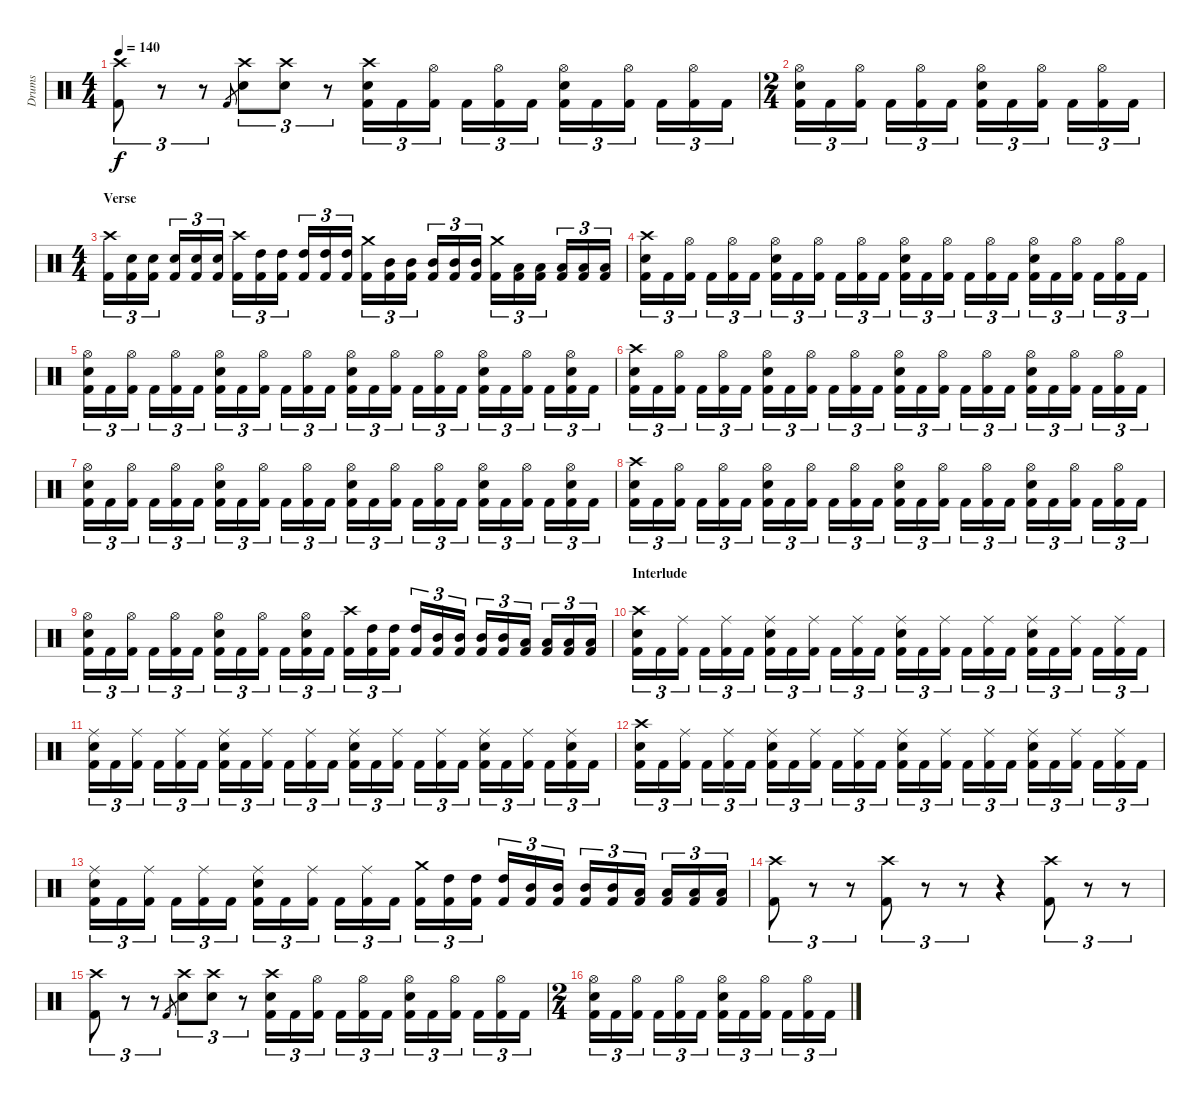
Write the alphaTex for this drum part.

\track ("Drums" "Drums") {instrument percussion}
\staff {score}
\articulation defaults
\ts (4 4)
\tempo 140
\clef neutral
\ks c
("Kick (hit) 2" "Crash high (hit)").8{tu (3 2) dy f} r.8{tu (3 2)} r.8{tu (3 2)} "Kick (hit) 2".8{gr} ("Snare (hit) 2" "Crash high (hit)").8{tu (3 2)} ("Snare (hit) 2" "Crash high (hit)").8{tu (3 2)} r.8{tu (3 2)} ("Kick (hit) 2" "Snare (hit) 2" "Crash high (hit)").16{tu (3 2)} "Kick (hit) 2".16{tu (3 2)} ("Kick (hit) 2" "Hi-Hat (open)").16{tu (3 2)} "Kick (hit) 2".16{tu (3 2)} ("Kick (hit) 2" "Hi-Hat (open)").16{tu (3 2)} "Kick (hit) 2".16{tu (3 2)} ("Kick (hit) 2" "Snare (hit) 2" "Hi-Hat (open)").16{tu (3 2)} "Kick (hit) 2".16{tu (3 2)} ("Kick (hit) 2" "Hi-Hat (open)").16{tu (3 2)} "Kick (hit) 2".16{tu (3 2)} ("Kick (hit) 2" "Hi-Hat (open)").16{tu (3 2)} "Kick (hit) 2".16{tu (3 2)} |
\ts (2 4)
("Kick (hit) 2" "Snare (hit) 2" "Hi-Hat (open)").16{tu (3 2)} "Kick (hit) 2".16{tu (3 2)} ("Kick (hit) 2" "Hi-Hat (open)").16{tu (3 2)} "Kick (hit) 2".16{tu (3 2)} ("Kick (hit) 2" "Hi-Hat (open)").16{tu (3 2)} "Kick (hit) 2".16{tu (3 2)} ("Kick (hit) 2" "Snare (hit) 2" "Hi-Hat (open)").16{tu (3 2)} "Kick (hit) 2".16{tu (3 2)} ("Kick (hit) 2" "Hi-Hat (open)").16{tu (3 2)} "Kick (hit) 2".16{tu (3 2)} ("Kick (hit) 2" "Hi-Hat (open)").16{tu (3 2)} "Kick (hit) 2".16{tu (3 2)} |
\ts (4 4)
\section ("" "Verse")
("Kick (hit) 2" "Crash high (hit)").16{tu (3 2)} ("Kick (hit) 2" "Snare (hit) 2").16{tu (3 2)} ("Kick (hit) 2" "Snare (hit) 2").16{tu (3 2)} ("Kick (hit) 2" "Snare (hit) 2").16{tu (3 2)} ("Kick (hit) 2" "Snare (hit) 2").16{tu (3 2)} ("Kick (hit) 2" "Snare (hit) 2").16{tu (3 2)} ("Kick (hit) 2" "Crash high (hit)").16{tu (3 2)} ("Kick (hit) 2" "High Tom (hit)").16{tu (3 2)} ("Kick (hit) 2" "High Tom (hit)").16{tu (3 2)} ("Kick (hit) 2" "High Tom (hit)").16{tu (3 2)} ("Kick (hit) 2" "High Tom (hit)").16{tu (3 2)} ("Kick (hit) 2" "High Tom (hit)").16{tu (3 2)} ("Kick (hit) 2" "Crash medium (hit)").16{tu (3 2)} ("Kick (hit) 2" "Mid Tom (hit)").16{tu (3 2)} ("Kick (hit) 2" "Mid Tom (hit)").16{tu (3 2)} ("Kick (hit) 2" "Mid Tom (hit)").16{tu (3 2)} ("Kick (hit) 2" "Mid Tom (hit)").16{tu (3 2)} ("Kick (hit) 2" "Mid Tom (hit)").16{tu (3 2)} ("Kick (hit) 2" "Crash medium (hit)").16{tu (3 2)} ("Kick (hit) 2" "Low Tom (hit)").16{tu (3 2)} ("Kick (hit) 2" "Low Tom (hit)").16{tu (3 2)} ("Kick (hit) 2" "Low Tom (hit)").16{tu (3 2)} ("Kick (hit) 2" "Low Tom (hit)").16{tu (3 2)} ("Kick (hit) 2" "Low Tom (hit)").16{tu (3 2)} |
("Kick (hit) 2" "Snare (hit) 2" "Crash high (hit)").16{tu (3 2)} "Kick (hit) 2".16{tu (3 2)} ("Kick (hit) 2" "Hi-Hat (open)").16{tu (3 2)} "Kick (hit) 2".16{tu (3 2)} ("Kick (hit) 2" "Hi-Hat (open)").16{tu (3 2)} "Kick (hit) 2".16{tu (3 2)} ("Kick (hit) 2" "Snare (hit) 2" "Hi-Hat (open)").16{tu (3 2)} "Kick (hit) 2".16{tu (3 2)} ("Kick (hit) 2" "Hi-Hat (open)").16{tu (3 2)} "Kick (hit) 2".16{tu (3 2)} ("Kick (hit) 2" "Hi-Hat (open)").16{tu (3 2)} "Kick (hit) 2".16{tu (3 2)} ("Kick (hit) 2" "Snare (hit) 2" "Hi-Hat (open)").16{tu (3 2)} "Kick (hit) 2".16{tu (3 2)} ("Kick (hit) 2" "Hi-Hat (open)").16{tu (3 2)} "Kick (hit) 2".16{tu (3 2)} ("Kick (hit) 2" "Hi-Hat (open)").16{tu (3 2)} "Kick (hit) 2".16{tu (3 2)} ("Kick (hit) 2" "Snare (hit) 2" "Hi-Hat (open)").16{tu (3 2)} "Kick (hit) 2".16{tu (3 2)} ("Kick (hit) 2" "Hi-Hat (open)").16{tu (3 2)} "Kick (hit) 2".16{tu (3 2)} ("Kick (hit) 2" "Hi-Hat (open)").16{tu (3 2)} "Kick (hit) 2".16{tu (3 2)} |
("Kick (hit) 2" "Snare (hit) 2" "Hi-Hat (open)").16{tu (3 2)} "Kick (hit) 2".16{tu (3 2)} ("Kick (hit) 2" "Hi-Hat (open)").16{tu (3 2)} "Kick (hit) 2".16{tu (3 2)} ("Kick (hit) 2" "Hi-Hat (open)").16{tu (3 2)} "Kick (hit) 2".16{tu (3 2)} ("Kick (hit) 2" "Snare (hit) 2" "Hi-Hat (open)").16{tu (3 2)} "Kick (hit) 2".16{tu (3 2)} ("Kick (hit) 2" "Hi-Hat (open)").16{tu (3 2)} "Kick (hit) 2".16{tu (3 2)} ("Kick (hit) 2" "Hi-Hat (open)").16{tu (3 2)} "Kick (hit) 2".16{tu (3 2)} ("Kick (hit) 2" "Snare (hit) 2" "Hi-Hat (open)").16{tu (3 2)} "Kick (hit) 2".16{tu (3 2)} ("Kick (hit) 2" "Hi-Hat (open)").16{tu (3 2)} "Kick (hit) 2".16{tu (3 2)} ("Kick (hit) 2" "Hi-Hat (open)").16{tu (3 2)} "Kick (hit) 2".16{tu (3 2)} ("Kick (hit) 2" "Snare (hit) 2" "Hi-Hat (open)").16{tu (3 2)} "Kick (hit) 2".16{tu (3 2)} ("Kick (hit) 2" "Hi-Hat (open)").16{tu (3 2)} "Kick (hit) 2".16{tu (3 2)} ("Kick (hit) 2" "Snare (hit) 2" "Hi-Hat (open)").16{tu (3 2)} "Kick (hit) 2".16{tu (3 2)} |
("Kick (hit) 2" "Snare (hit) 2" "Crash high (hit)").16{tu (3 2)} "Kick (hit) 2".16{tu (3 2)} ("Kick (hit) 2" "Hi-Hat (open)").16{tu (3 2)} "Kick (hit) 2".16{tu (3 2)} ("Kick (hit) 2" "Hi-Hat (open)").16{tu (3 2)} "Kick (hit) 2".16{tu (3 2)} ("Kick (hit) 2" "Snare (hit) 2" "Hi-Hat (open)").16{tu (3 2)} "Kick (hit) 2".16{tu (3 2)} ("Kick (hit) 2" "Hi-Hat (open)").16{tu (3 2)} "Kick (hit) 2".16{tu (3 2)} ("Kick (hit) 2" "Hi-Hat (open)").16{tu (3 2)} "Kick (hit) 2".16{tu (3 2)} ("Kick (hit) 2" "Snare (hit) 2" "Hi-Hat (open)").16{tu (3 2)} "Kick (hit) 2".16{tu (3 2)} ("Kick (hit) 2" "Hi-Hat (open)").16{tu (3 2)} "Kick (hit) 2".16{tu (3 2)} ("Kick (hit) 2" "Hi-Hat (open)").16{tu (3 2)} "Kick (hit) 2".16{tu (3 2)} ("Kick (hit) 2" "Snare (hit) 2" "Hi-Hat (open)").16{tu (3 2)} "Kick (hit) 2".16{tu (3 2)} ("Kick (hit) 2" "Hi-Hat (open)").16{tu (3 2)} "Kick (hit) 2".16{tu (3 2)} ("Kick (hit) 2" "Hi-Hat (open)").16{tu (3 2)} "Kick (hit) 2".16{tu (3 2)} |
("Kick (hit) 2" "Snare (hit) 2" "Hi-Hat (open)").16{tu (3 2)} "Kick (hit) 2".16{tu (3 2)} ("Kick (hit) 2" "Hi-Hat (open)").16{tu (3 2)} "Kick (hit) 2".16{tu (3 2)} ("Kick (hit) 2" "Hi-Hat (open)").16{tu (3 2)} "Kick (hit) 2".16{tu (3 2)} ("Kick (hit) 2" "Snare (hit) 2" "Hi-Hat (open)").16{tu (3 2)} "Kick (hit) 2".16{tu (3 2)} ("Kick (hit) 2" "Hi-Hat (open)").16{tu (3 2)} "Kick (hit) 2".16{tu (3 2)} ("Kick (hit) 2" "Hi-Hat (open)").16{tu (3 2)} "Kick (hit) 2".16{tu (3 2)} ("Kick (hit) 2" "Snare (hit) 2" "Hi-Hat (open)").16{tu (3 2)} "Kick (hit) 2".16{tu (3 2)} ("Kick (hit) 2" "Hi-Hat (open)").16{tu (3 2)} "Kick (hit) 2".16{tu (3 2)} ("Kick (hit) 2" "Hi-Hat (open)").16{tu (3 2)} "Kick (hit) 2".16{tu (3 2)} ("Kick (hit) 2" "Snare (hit) 2" "Hi-Hat (open)").16{tu (3 2)} "Kick (hit) 2".16{tu (3 2)} ("Kick (hit) 2" "Hi-Hat (open)").16{tu (3 2)} "Kick (hit) 2".16{tu (3 2)} ("Kick (hit) 2" "Snare (hit) 2" "Hi-Hat (open)").16{tu (3 2)} "Kick (hit) 2".16{tu (3 2)} |
("Kick (hit) 2" "Snare (hit) 2" "Crash high (hit)").16{tu (3 2)} "Kick (hit) 2".16{tu (3 2)} ("Kick (hit) 2" "Hi-Hat (open)").16{tu (3 2)} "Kick (hit) 2".16{tu (3 2)} ("Kick (hit) 2" "Hi-Hat (open)").16{tu (3 2)} "Kick (hit) 2".16{tu (3 2)} ("Kick (hit) 2" "Snare (hit) 2" "Hi-Hat (open)").16{tu (3 2)} "Kick (hit) 2".16{tu (3 2)} ("Kick (hit) 2" "Hi-Hat (open)").16{tu (3 2)} "Kick (hit) 2".16{tu (3 2)} ("Kick (hit) 2" "Hi-Hat (open)").16{tu (3 2)} "Kick (hit) 2".16{tu (3 2)} ("Kick (hit) 2" "Snare (hit) 2" "Hi-Hat (open)").16{tu (3 2)} "Kick (hit) 2".16{tu (3 2)} ("Kick (hit) 2" "Hi-Hat (open)").16{tu (3 2)} "Kick (hit) 2".16{tu (3 2)} ("Kick (hit) 2" "Hi-Hat (open)").16{tu (3 2)} "Kick (hit) 2".16{tu (3 2)} ("Kick (hit) 2" "Snare (hit) 2" "Hi-Hat (open)").16{tu (3 2)} "Kick (hit) 2".16{tu (3 2)} ("Kick (hit) 2" "Hi-Hat (open)").16{tu (3 2)} "Kick (hit) 2".16{tu (3 2)} ("Kick (hit) 2" "Hi-Hat (open)").16{tu (3 2)} "Kick (hit) 2".16{tu (3 2)} |
("Kick (hit) 2" "Snare (hit) 2" "Hi-Hat (open)").16{tu (3 2)} "Kick (hit) 2".16{tu (3 2)} ("Kick (hit) 2" "Hi-Hat (open)").16{tu (3 2)} "Kick (hit) 2".16{tu (3 2)} ("Kick (hit) 2" "Hi-Hat (open)").16{tu (3 2)} "Kick (hit) 2".16{tu (3 2)} ("Kick (hit) 2" "Snare (hit) 2" "Hi-Hat (open)").16{tu (3 2)} "Kick (hit) 2".16{tu (3 2)} ("Kick (hit) 2" "Hi-Hat (open)").16{tu (3 2)} "Kick (hit) 2".16{tu (3 2)} ("Kick (hit) 2" "Snare (hit) 2" "Hi-Hat (open)").16{tu (3 2)} "Kick (hit) 2".16{tu (3 2)} ("Kick (hit) 2" "Crash high (hit)").16{tu (3 2)} ("Kick (hit) 2" "High Tom (hit)").16{tu (3 2)} ("Kick (hit) 2" "High Tom (hit)").16{tu (3 2)} ("Kick (hit) 2" "High Tom (hit)").16{tu (3 2)} ("Kick (hit) 2" "Mid Tom (hit)").16{tu (3 2)} ("Kick (hit) 2" "Mid Tom (hit)").16{tu (3 2)} ("Kick (hit) 2" "Mid Tom (hit)").16{tu (3 2)} ("Kick (hit) 2" "Mid Tom (hit)").16{tu (3 2)} ("Kick (hit) 2" "Low Tom (hit)").16{tu (3 2)} ("Kick (hit) 2" "Low Tom (hit)").16{tu (3 2)} ("Kick (hit) 2" "Low Tom (hit)").16{tu (3 2)} ("Kick (hit) 2" "Low Tom (hit)").16{tu (3 2)} |
\section ("" "Interlude")
("Kick (hit) 2" "Snare (hit) 2" "Crash high (hit)").16{tu (3 2)} "Kick (hit) 2".16{tu (3 2)} ("Kick (hit) 2" "Ride (middle)").16{tu (3 2)} "Kick (hit) 2".16{tu (3 2)} ("Kick (hit) 2" "Ride (middle)").16{tu (3 2)} "Kick (hit) 2".16{tu (3 2)} ("Kick (hit) 2" "Snare (hit) 2" "Ride (middle)").16{tu (3 2)} "Kick (hit) 2".16{tu (3 2)} ("Kick (hit) 2" "Ride (middle)").16{tu (3 2)} "Kick (hit) 2".16{tu (3 2)} ("Kick (hit) 2" "Ride (middle)").16{tu (3 2)} "Kick (hit) 2".16{tu (3 2)} ("Kick (hit) 2" "Snare (hit) 2" "Ride (middle)").16{tu (3 2)} "Kick (hit) 2".16{tu (3 2)} ("Kick (hit) 2" "Ride (middle)").16{tu (3 2)} "Kick (hit) 2".16{tu (3 2)} ("Kick (hit) 2" "Ride (middle)").16{tu (3 2)} "Kick (hit) 2".16{tu (3 2)} ("Kick (hit) 2" "Snare (hit) 2" "Ride (middle)").16{tu (3 2)} "Kick (hit) 2".16{tu (3 2)} ("Kick (hit) 2" "Ride (middle)").16{tu (3 2)} "Kick (hit) 2".16{tu (3 2)} ("Kick (hit) 2" "Ride (middle)").16{tu (3 2)} "Kick (hit) 2".16{tu (3 2)} |
("Kick (hit) 2" "Snare (hit) 2" "Ride (middle)").16{tu (3 2)} "Kick (hit) 2".16{tu (3 2)} ("Kick (hit) 2" "Ride (middle)").16{tu (3 2)} "Kick (hit) 2".16{tu (3 2)} ("Kick (hit) 2" "Ride (middle)").16{tu (3 2)} "Kick (hit) 2".16{tu (3 2)} ("Kick (hit) 2" "Snare (hit) 2" "Ride (middle)").16{tu (3 2)} "Kick (hit) 2".16{tu (3 2)} ("Kick (hit) 2" "Ride (middle)").16{tu (3 2)} "Kick (hit) 2".16{tu (3 2)} ("Kick (hit) 2" "Ride (middle)").16{tu (3 2)} "Kick (hit) 2".16{tu (3 2)} ("Kick (hit) 2" "Snare (hit) 2" "Ride (middle)").16{tu (3 2)} "Kick (hit) 2".16{tu (3 2)} ("Kick (hit) 2" "Ride (middle)").16{tu (3 2)} "Kick (hit) 2".16{tu (3 2)} ("Kick (hit) 2" "Ride (middle)").16{tu (3 2)} "Kick (hit) 2".16{tu (3 2)} ("Kick (hit) 2" "Snare (hit) 2" "Ride (middle)").16{tu (3 2)} "Kick (hit) 2".16{tu (3 2)} ("Kick (hit) 2" "Ride (middle)").16{tu (3 2)} "Kick (hit) 2".16{tu (3 2)} ("Kick (hit) 2" "Snare (hit) 2" "Ride (middle)").16{tu (3 2)} "Kick (hit) 2".16{tu (3 2)} |
("Kick (hit) 2" "Snare (hit) 2" "Crash high (hit)").16{tu (3 2)} "Kick (hit) 2".16{tu (3 2)} ("Kick (hit) 2" "Ride (middle)").16{tu (3 2)} "Kick (hit) 2".16{tu (3 2)} ("Kick (hit) 2" "Ride (middle)").16{tu (3 2)} "Kick (hit) 2".16{tu (3 2)} ("Kick (hit) 2" "Snare (hit) 2" "Ride (middle)").16{tu (3 2)} "Kick (hit) 2".16{tu (3 2)} ("Kick (hit) 2" "Ride (middle)").16{tu (3 2)} "Kick (hit) 2".16{tu (3 2)} ("Kick (hit) 2" "Ride (middle)").16{tu (3 2)} "Kick (hit) 2".16{tu (3 2)} ("Kick (hit) 2" "Snare (hit) 2" "Ride (middle)").16{tu (3 2)} "Kick (hit) 2".16{tu (3 2)} ("Kick (hit) 2" "Ride (middle)").16{tu (3 2)} "Kick (hit) 2".16{tu (3 2)} ("Kick (hit) 2" "Ride (middle)").16{tu (3 2)} "Kick (hit) 2".16{tu (3 2)} ("Kick (hit) 2" "Snare (hit) 2" "Ride (middle)").16{tu (3 2)} "Kick (hit) 2".16{tu (3 2)} ("Kick (hit) 2" "Ride (middle)").16{tu (3 2)} "Kick (hit) 2".16{tu (3 2)} ("Kick (hit) 2" "Ride (middle)").16{tu (3 2)} "Kick (hit) 2".16{tu (3 2)} |
("Kick (hit) 2" "Snare (hit) 2" "Ride (middle)").16{tu (3 2)} "Kick (hit) 2".16{tu (3 2)} ("Kick (hit) 2" "Ride (middle)").16{tu (3 2)} "Kick (hit) 2".16{tu (3 2)} ("Kick (hit) 2" "Ride (middle)").16{tu (3 2)} "Kick (hit) 2".16{tu (3 2)} ("Kick (hit) 2" "Snare (hit) 2" "Ride (middle)").16{tu (3 2)} "Kick (hit) 2".16{tu (3 2)} ("Kick (hit) 2" "Ride (middle)").16{tu (3 2)} "Kick (hit) 2".16{tu (3 2)} ("Kick (hit) 2" "Ride (middle)").16{tu (3 2)} "Kick (hit) 2".16{tu (3 2)} ("Kick (hit) 2" "Crash medium (hit)").16{tu (3 2)} ("Kick (hit) 2" "High Tom (hit)").16{tu (3 2)} ("Kick (hit) 2" "High Tom (hit)").16{tu (3 2)} ("Kick (hit) 2" "High Tom (hit)").16{tu (3 2)} ("Kick (hit) 2" "Mid Tom (hit)").16{tu (3 2)} ("Kick (hit) 2" "Mid Tom (hit)").16{tu (3 2)} ("Kick (hit) 2" "Mid Tom (hit)").16{tu (3 2)} ("Kick (hit) 2" "Mid Tom (hit)").16{tu (3 2)} ("Kick (hit) 2" "Low Tom (hit)").16{tu (3 2)} ("Kick (hit) 2" "Low Tom (hit)").16{tu (3 2)} ("Kick (hit) 2" "Low Tom (hit)").16{tu (3 2)} ("Kick (hit) 2" "Low Tom (hit)").16{tu (3 2)} |
("Kick (hit) 2" "Crash high (hit)").8{tu (3 2)} r.8{tu (3 2)} r.8{tu (3 2)} ("Kick (hit) 2" "Crash high (hit)").8{tu (3 2)} r.8{tu (3 2)} r.8{tu (3 2)} r.4 ("Kick (hit) 2" "Crash high (hit)").8{tu (3 2)} r.8{tu (3 2)} r.8{tu (3 2)} |
("Kick (hit) 2" "Crash high (hit)").8{tu (3 2)} r.8{tu (3 2)} r.8{tu (3 2)} "Kick (hit) 2".8{gr} ("Snare (hit) 2" "Crash high (hit)").8{tu (3 2)} ("Snare (hit) 2" "Crash high (hit)").8{tu (3 2)} r.8{tu (3 2)} ("Kick (hit) 2" "Snare (hit) 2" "Crash high (hit)").16{tu (3 2)} "Kick (hit) 2".16{tu (3 2)} ("Kick (hit) 2" "Hi-Hat (open)").16{tu (3 2)} "Kick (hit) 2".16{tu (3 2)} ("Kick (hit) 2" "Hi-Hat (open)").16{tu (3 2)} "Kick (hit) 2".16{tu (3 2)} ("Kick (hit) 2" "Snare (hit) 2" "Hi-Hat (open)").16{tu (3 2)} "Kick (hit) 2".16{tu (3 2)} ("Kick (hit) 2" "Hi-Hat (open)").16{tu (3 2)} "Kick (hit) 2".16{tu (3 2)} ("Kick (hit) 2" "Hi-Hat (open)").16{tu (3 2)} "Kick (hit) 2".16{tu (3 2)} |
\ts (2 4)
("Kick (hit) 2" "Snare (hit) 2" "Hi-Hat (open)").16{tu (3 2)} "Kick (hit) 2".16{tu (3 2)} ("Kick (hit) 2" "Hi-Hat (open)").16{tu (3 2)} "Kick (hit) 2".16{tu (3 2)} ("Kick (hit) 2" "Hi-Hat (open)").16{tu (3 2)} "Kick (hit) 2".16{tu (3 2)} ("Kick (hit) 2" "Snare (hit) 2" "Hi-Hat (open)").16{tu (3 2)} "Kick (hit) 2".16{tu (3 2)} ("Kick (hit) 2" "Hi-Hat (open)").16{tu (3 2)} "Kick (hit) 2".16{tu (3 2)} ("Kick (hit) 2" "Hi-Hat (open)").16{tu (3 2)} "Kick (hit) 2".16{tu (3 2)}
